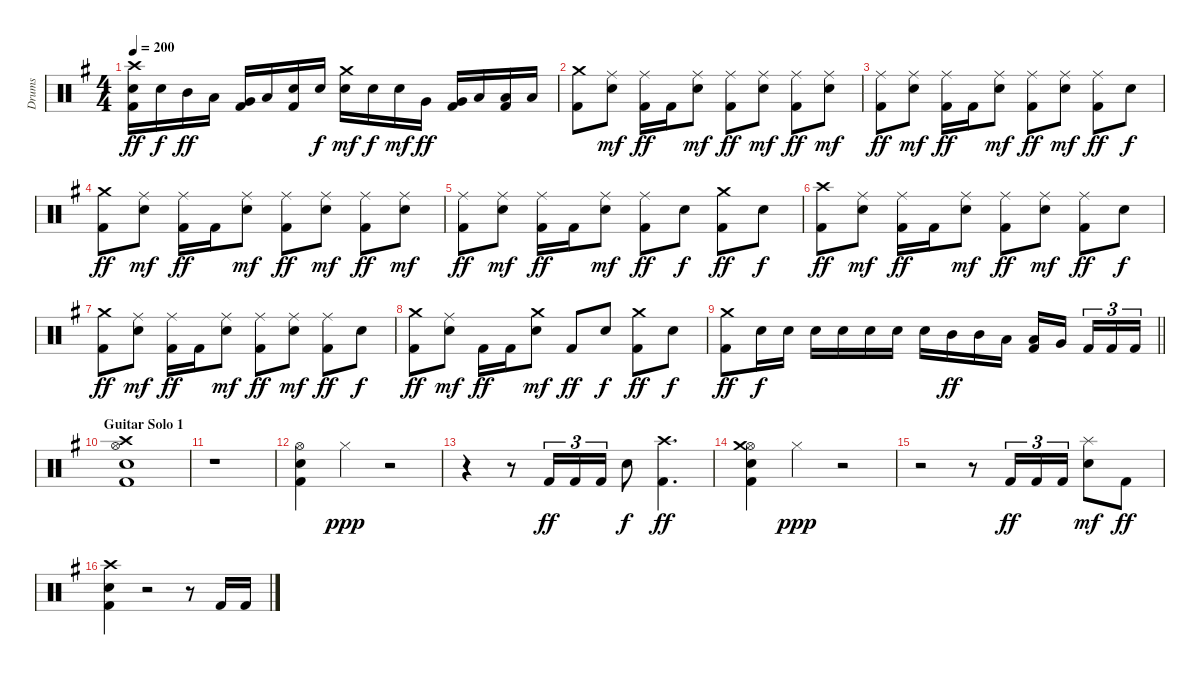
\track ("Drums" "Drums") {instrument percussion}
\staff {score}
\articulation defaults
\ts (4 4)
\tempo 200
\clef neutral
\ks g
("Crash high (hit)" "Snare (hit) 2" "Kick (hit) 2").16{dy ff} "Snare (hit) 2".16{dy f} "Mid Tom (hit)".16{dy ff} "Low Tom (hit)".16 ("Very Low Tom (hit)" "Kick (hit) 2").16 "Low Floor Tom (hit)".16 ("Snare (hit) 2" "Kick (hit) 2").16 "Snare (hit) 2".16{dy f} ("Crash medium (hit)" "Snare (hit) 2").16{dy mf} "Snare (hit) 2".16{dy f} "Snare (hit) 2".16{dy mf} "Very Low Tom (hit)".16{dy ff} ("Very Low Tom (hit)" "Kick (hit) 2").16 "Low Floor Tom (hit)".16 ("Low Floor Tom (hit)" "Kick (hit) 2").16 "Low Floor Tom (hit)".16 |
("Crash medium (hit)" "Kick (hit) 2").8 ("Ride (middle)" "Snare (hit) 2").8{dy mf} ("Ride (middle)" "Kick (hit) 2").16{dy ff} "Kick (hit) 2".16 ("Ride (middle)" "Snare (hit) 2").8{dy mf} ("Ride (middle)" "Kick (hit) 2").8{dy ff} ("Ride (middle)" "Snare (hit) 2").8{dy mf} ("Ride (middle)" "Kick (hit) 2").8{dy ff} ("Ride (middle)" "Snare (hit) 2").8{dy mf} |
("Ride (middle)" "Kick (hit) 2").8{dy ff} ("Ride (middle)" "Snare (hit) 2").8{dy mf} ("Ride (middle)" "Kick (hit) 2").16{dy ff} "Kick (hit) 2".16 ("Ride (middle)" "Snare (hit) 2").8{dy mf} ("Ride (middle)" "Kick (hit) 2").8{dy ff} ("Ride (middle)" "Snare (hit) 2").8{dy mf} ("Ride (middle)" "Kick (hit) 2").8{dy ff} "Snare (hit) 2".8{dy f} |
("Crash medium (hit)" "Kick (hit) 2").8{dy ff} ("Ride (middle)" "Snare (hit) 2").8{dy mf} ("Ride (middle)" "Kick (hit) 2").16{dy ff} "Kick (hit) 2".16 ("Ride (middle)" "Snare (hit) 2").8{dy mf} ("Ride (middle)" "Kick (hit) 2").8{dy ff} ("Ride (middle)" "Snare (hit) 2").8{dy mf} ("Ride (middle)" "Kick (hit) 2").8{dy ff} ("Ride (middle)" "Snare (hit) 2").8{dy mf} |
("Ride (middle)" "Kick (hit) 2").8{dy ff} ("Ride (middle)" "Snare (hit) 2").8{dy mf} ("Ride (middle)" "Kick (hit) 2").16{dy ff} "Kick (hit) 2".16 ("Ride (middle)" "Snare (hit) 2").8{dy mf} ("Ride (middle)" "Kick (hit) 2").8{dy ff} "Snare (hit) 2".8{dy f} ("Crash medium (hit)" "Kick (hit) 2").8{dy ff} "Snare (hit) 2".8{dy f} |
("Crash high (hit)" "Kick (hit) 2").8{dy ff} ("Ride (middle)" "Snare (hit) 2").8{dy mf} ("Ride (middle)" "Kick (hit) 2").16{dy ff} "Kick (hit) 2".16 ("Ride (middle)" "Snare (hit) 2").8{dy mf} ("Ride (middle)" "Kick (hit) 2").8{dy ff} ("Ride (middle)" "Snare (hit) 2").8{dy mf} ("Ride (middle)" "Kick (hit) 2").8{dy ff} "Snare (hit) 2".8{dy f} |
("Crash medium (hit)" "Kick (hit) 2").8{dy ff} ("Ride (middle)" "Snare (hit) 2").8{dy mf} ("Ride (middle)" "Kick (hit) 2").16{dy ff} "Kick (hit) 2".16 ("Ride (middle)" "Snare (hit) 2").8{dy mf} ("Ride (middle)" "Kick (hit) 2").8{dy ff} ("Ride (middle)" "Snare (hit) 2").8{dy mf} ("Ride (middle)" "Kick (hit) 2").8{dy ff} "Snare (hit) 2".8{dy f} |
("Crash medium (hit)" "Kick (hit) 2").8{dy ff} ("Ride (middle)" "Snare (hit) 2").8{dy mf} "Kick (hit) 2".16{dy ff} "Kick (hit) 2".16 ("Crash medium (hit)" "Snare (hit) 2").8{dy mf} "Kick (hit) 2".8{dy ff} "Snare (hit) 2".8{dy f} ("Crash medium (hit)" "Kick (hit) 2").8{dy ff} "Snare (hit) 2".8{dy f} |
\barLineRight lightlight
("Crash medium (hit)" "Kick (hit) 2").8{dy ff} "Snare (hit) 2".16{dy f} "Snare (hit) 2".16 "Snare (hit) 2".16 "Snare (hit) 2".16 "Snare (hit) 2".16 "Snare (hit) 2".16 "Snare (hit) 2".16 "Mid Tom (hit)".16{dy ff} "Mid Tom (hit)".16 "Low Tom (hit)".16 ("Low Tom (hit)" "Kick (hit) 2").16 "Very Low Tom (hit)".16{beam splitsecondary} "Kick (hit) 2".16{tu (3 2)} "Kick (hit) 2".16{tu (3 2)} "Kick (hit) 2".16{tu (3 2)} |
\section ("" "Guitar Solo 1")
("Hi-Hat (open)" "Crash high (hit)" "Snare (hit) 2" "Kick (hit) 2").1 |
r.1 |
("Hi-Hat (open)" "Snare (hit) 2" "Kick (hit) 2").4 "Hi-Hat (closed)".4{dy ppp} r.2 |
r.4 r.8 "Kick (hit) 2".16{tu (3 2) dy ff} "Kick (hit) 2".16{tu (3 2)} "Kick (hit) 2".16{tu (3 2)} "Snare (hit) 2".8{dy f} ("Crash high (hit)" "Kick (hit) 2").4{d dy ff} |
("Hi-Hat (open)" "Crash medium (hit)" "Snare (hit) 2" "Kick (hit) 2").4 "Hi-Hat (closed)".4{dy ppp} r.2 |
r.2 r.8 "Kick (hit) 2".16{tu (3 2) dy ff} "Kick (hit) 2".16{tu (3 2)} "Kick (hit) 2".16{tu (3 2)} ("Splash (hit)" "Snare (hit) 2").8{dy mf} "Kick (hit) 2".8{dy ff} |
("Crash high (hit)" "Snare (hit) 2" "Kick (hit) 2").4 r.2 r.8 "Kick (hit) 2".16 "Kick (hit) 2".16
